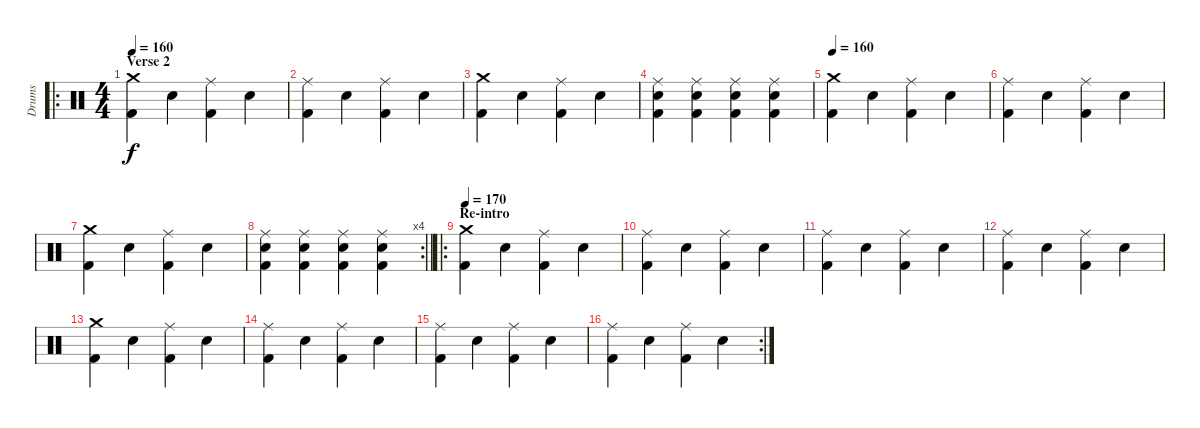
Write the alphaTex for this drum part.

\track ("Drums" "Drums") {instrument percussion}
\staff {score}
\articulation defaults
\ro
\ts (4 4)
\section ("" "Verse 2")
\tempo 160
\clef neutral
\ks c
("Crash medium (hit)" "Kick (hit) 2").4{dy f} "Electric Snare (hit)".4 ("Ride (middle)" "Kick (hit) 2").4 "Electric Snare (hit)".4 |
("Ride (middle)" "Kick (hit) 2").4 "Electric Snare (hit)".4 ("Ride (middle)" "Kick (hit) 2").4 "Electric Snare (hit)".4 |
("Crash medium (hit)" "Kick (hit) 2").4 "Electric Snare (hit)".4 ("Ride (middle)" "Kick (hit) 2").4 "Electric Snare (hit)".4 |
("Ride (middle)" "Electric Snare (hit)" "Kick (hit) 2").4 ("Ride (middle)" "Electric Snare (hit)" "Kick (hit) 2").4 ("Ride (middle)" "Electric Snare (hit)" "Kick (hit) 2").4 ("Ride (middle)" "Electric Snare (hit)" "Kick (hit) 2").4 |
\tempo 160
("Crash medium (hit)" "Kick (hit) 2").4 "Electric Snare (hit)".4 ("Ride (middle)" "Kick (hit) 2").4 "Electric Snare (hit)".4 |
("Ride (middle)" "Kick (hit) 2").4 "Electric Snare (hit)".4 ("Ride (middle)" "Kick (hit) 2").4 "Electric Snare (hit)".4 |
("Crash medium (hit)" "Kick (hit) 2").4 "Electric Snare (hit)".4 ("Ride (middle)" "Kick (hit) 2").4 "Electric Snare (hit)".4 |
\rc 4
\barLineRight lightlight
("Ride (middle)" "Electric Snare (hit)" "Kick (hit) 2").4 ("Ride (middle)" "Electric Snare (hit)" "Kick (hit) 2").4 ("Ride (middle)" "Electric Snare (hit)" "Kick (hit) 2").4 ("Ride (middle)" "Electric Snare (hit)" "Kick (hit) 2").4 |
\ro
\section ("" "Re-intro")
\tempo 170
("Crash medium (hit)" "Kick (hit) 2").4 "Electric Snare (hit)".4 ("Ride (middle)" "Kick (hit) 2").4 "Electric Snare (hit)".4 |
("Ride (middle)" "Kick (hit) 2").4 "Electric Snare (hit)".4 ("Ride (middle)" "Kick (hit) 2").4 "Electric Snare (hit)".4 |
("Ride (middle)" "Kick (hit) 2").4 "Electric Snare (hit)".4 ("Ride (middle)" "Kick (hit) 2").4 "Electric Snare (hit)".4 |
("Ride (middle)" "Kick (hit) 2").4 "Electric Snare (hit)".4 ("Ride (middle)" "Kick (hit) 2").4 "Electric Snare (hit)".4 |
("Crash medium (hit)" "Kick (hit) 2").4 "Electric Snare (hit)".4 ("Ride (middle)" "Kick (hit) 2").4 "Electric Snare (hit)".4 |
("Ride (middle)" "Kick (hit) 2").4 "Electric Snare (hit)".4 ("Ride (middle)" "Kick (hit) 2").4 "Electric Snare (hit)".4 |
("Ride (middle)" "Kick (hit) 2").4 "Electric Snare (hit)".4 ("Ride (middle)" "Kick (hit) 2").4 "Electric Snare (hit)".4 |
\rc 2
("Ride (middle)" "Kick (hit) 2").4 "Electric Snare (hit)".4 ("Ride (middle)" "Kick (hit) 2").4 "Electric Snare (hit)".4
